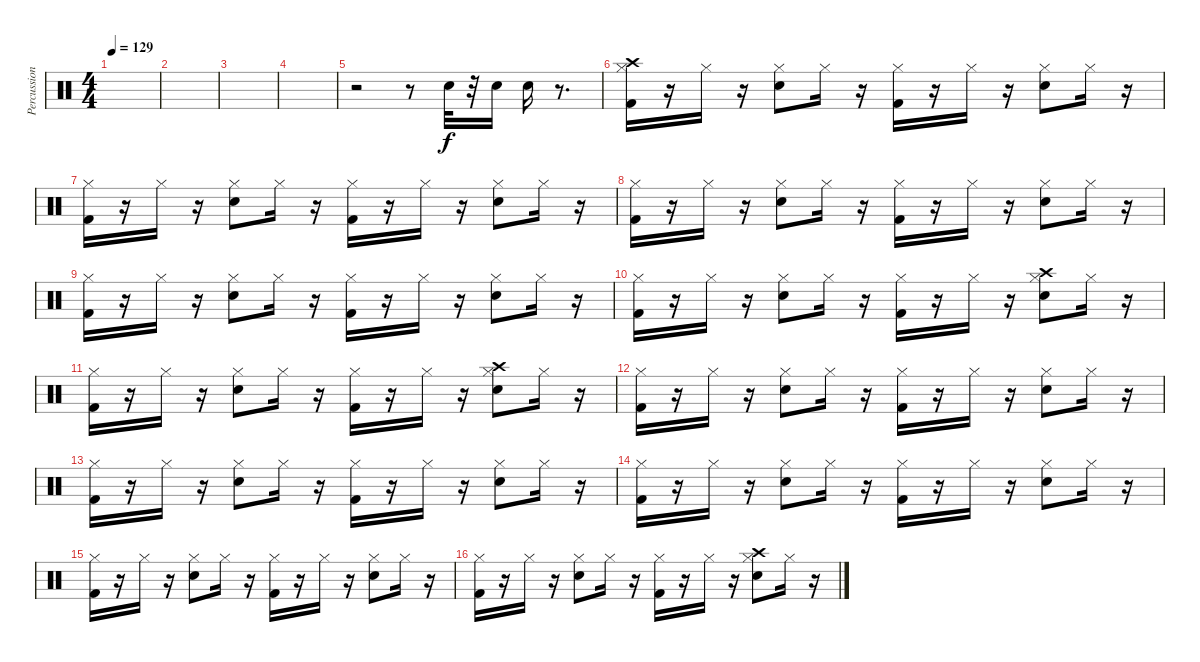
\track ("Percussion" "Percussion") {instrument percussion}
\staff {score}
\articulation defaults
\ts (4 4)
\tempo 129
\clef neutral
\ks c
|
|
|
|
r.2 r.8 "Snare (hit) 2".32{volume 16} r.32 "Snare (hit) 2".16 "Snare (hit) 2".16 r.8{d} |
("Kick (hit) 2" "Hi-Hat (closed)" "Crash high (hit)").16 r.16 "Hi-Hat (closed)".16 r.16 ("Snare (hit) 2" "Hi-Hat (closed)").8 "Hi-Hat (closed)".16 r.16 ("Kick (hit) 2" "Hi-Hat (closed)").16 r.16 "Hi-Hat (closed)".16 r.16 ("Snare (hit) 2" "Hi-Hat (closed)").8 "Hi-Hat (closed)".16 r.16 |
("Kick (hit) 2" "Hi-Hat (closed)").16 r.16 "Hi-Hat (closed)".16 r.16 ("Snare (hit) 2" "Hi-Hat (closed)").8 "Hi-Hat (closed)".16 r.16 ("Kick (hit) 2" "Hi-Hat (closed)").16 r.16 "Hi-Hat (closed)".16 r.16 ("Snare (hit) 2" "Hi-Hat (closed)").8 "Hi-Hat (closed)".16 r.16 |
("Kick (hit) 2" "Hi-Hat (closed)").16 r.16 "Hi-Hat (closed)".16 r.16 ("Snare (hit) 2" "Hi-Hat (closed)").8 "Hi-Hat (closed)".16 r.16 ("Kick (hit) 2" "Hi-Hat (closed)").16 r.16 "Hi-Hat (closed)".16 r.16 ("Snare (hit) 2" "Hi-Hat (closed)").8 "Hi-Hat (closed)".16 r.16 |
("Kick (hit) 2" "Hi-Hat (closed)").16 r.16 "Hi-Hat (closed)".16 r.16 ("Snare (hit) 2" "Hi-Hat (closed)").8 "Hi-Hat (closed)".16 r.16 ("Kick (hit) 2" "Hi-Hat (closed)").16 r.16 "Hi-Hat (closed)".16 r.16 ("Snare (hit) 2" "Hi-Hat (closed)").8 "Hi-Hat (closed)".16 r.16 |
("Kick (hit) 2" "Hi-Hat (closed)").16 r.16 "Hi-Hat (closed)".16 r.16 ("Snare (hit) 2" "Hi-Hat (closed)").8 "Hi-Hat (closed)".16 r.16 ("Kick (hit) 2" "Hi-Hat (closed)").16 r.16 "Hi-Hat (closed)".16 r.16 ("Snare (hit) 2" "Hi-Hat (closed)" "Crash high (hit)").8 "Hi-Hat (closed)".16 r.16 |
("Kick (hit) 2" "Hi-Hat (closed)").16 r.16 "Hi-Hat (closed)".16 r.16 ("Snare (hit) 2" "Hi-Hat (closed)").8 "Hi-Hat (closed)".16 r.16 ("Kick (hit) 2" "Hi-Hat (closed)").16 r.16 "Hi-Hat (closed)".16 r.16 ("Snare (hit) 2" "Hi-Hat (closed)" "Crash high (hit)").8 "Hi-Hat (closed)".16 r.16 |
("Kick (hit) 2" "Hi-Hat (closed)").16 r.16 "Hi-Hat (closed)".16 r.16 ("Snare (hit) 2" "Hi-Hat (closed)").8 "Hi-Hat (closed)".16 r.16 ("Kick (hit) 2" "Hi-Hat (closed)").16 r.16 "Hi-Hat (closed)".16 r.16 ("Snare (hit) 2" "Hi-Hat (closed)").8 "Hi-Hat (closed)".16 r.16 |
("Kick (hit) 2" "Hi-Hat (closed)").16 r.16 "Hi-Hat (closed)".16 r.16 ("Snare (hit) 2" "Hi-Hat (closed)").8 "Hi-Hat (closed)".16 r.16 ("Kick (hit) 2" "Hi-Hat (closed)").16 r.16 "Hi-Hat (closed)".16 r.16 ("Snare (hit) 2" "Hi-Hat (closed)").8 "Hi-Hat (closed)".16 r.16 |
("Kick (hit) 2" "Hi-Hat (closed)").16 r.16 "Hi-Hat (closed)".16 r.16 ("Snare (hit) 2" "Hi-Hat (closed)").8 "Hi-Hat (closed)".16 r.16 ("Kick (hit) 2" "Hi-Hat (closed)").16 r.16 "Hi-Hat (closed)".16 r.16 ("Snare (hit) 2" "Hi-Hat (closed)").8 "Hi-Hat (closed)".16 r.16 |
("Kick (hit) 2" "Hi-Hat (closed)").16 r.16 "Hi-Hat (closed)".16 r.16 ("Snare (hit) 2" "Hi-Hat (closed)").8 "Hi-Hat (closed)".16 r.16 ("Kick (hit) 2" "Hi-Hat (closed)").16 r.16 "Hi-Hat (closed)".16 r.16 ("Snare (hit) 2" "Hi-Hat (closed)").8 "Hi-Hat (closed)".16 r.16 |
("Kick (hit) 2" "Hi-Hat (closed)").16 r.16 "Hi-Hat (closed)".16 r.16 ("Snare (hit) 2" "Hi-Hat (closed)").8 "Hi-Hat (closed)".16 r.16 ("Kick (hit) 2" "Hi-Hat (closed)").16 r.16 "Hi-Hat (closed)".16 r.16 ("Snare (hit) 2" "Hi-Hat (closed)" "Crash high (hit)").8 "Hi-Hat (closed)".16 r.16
